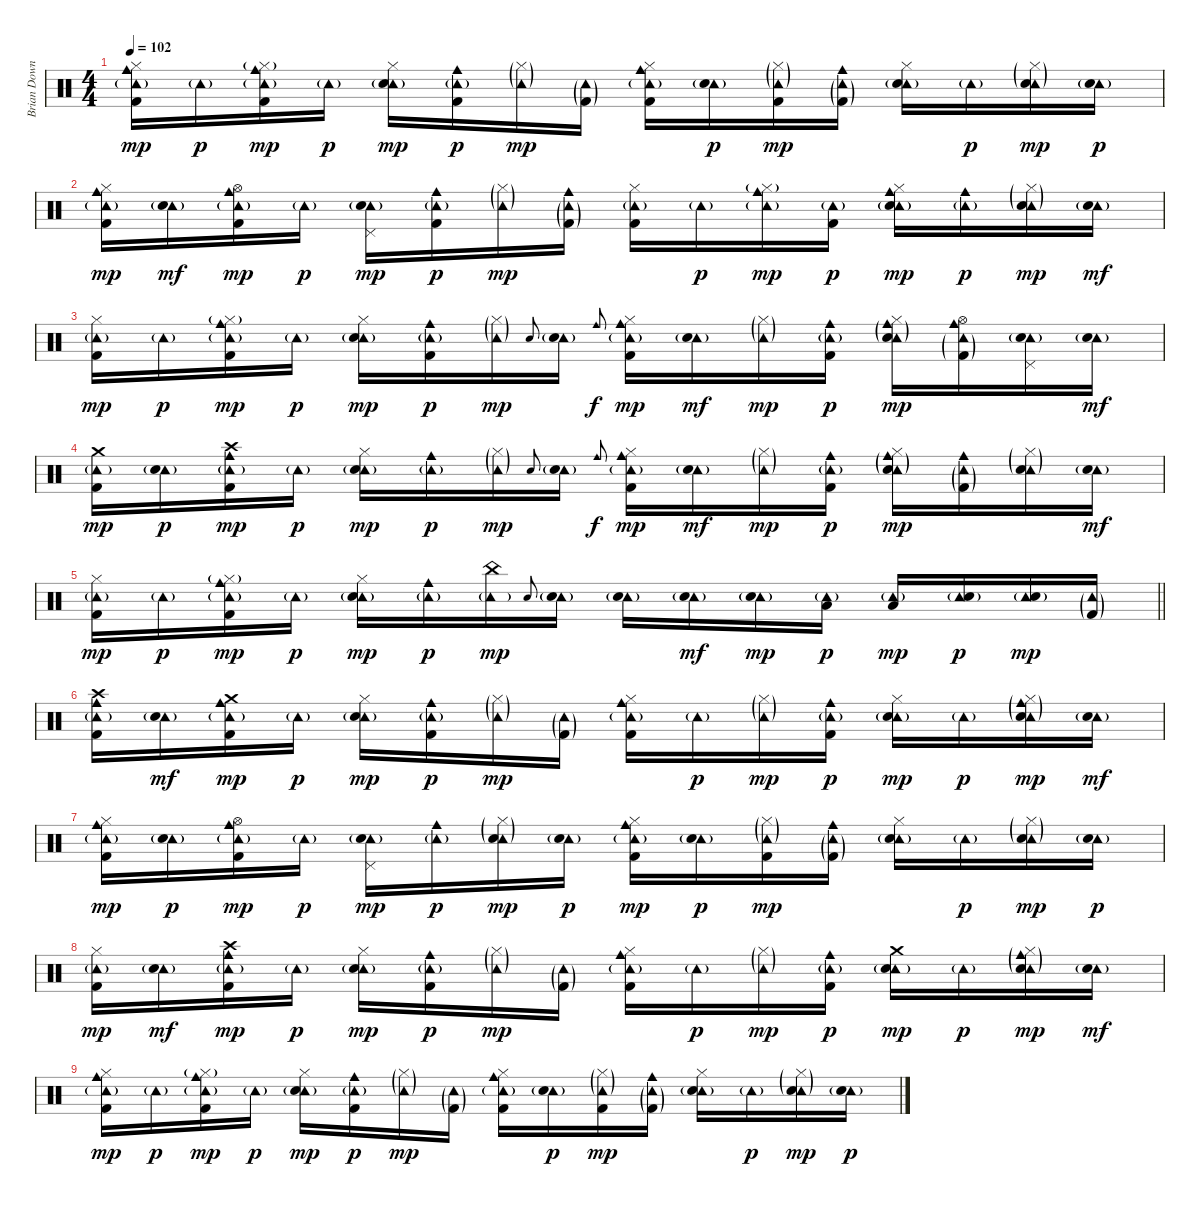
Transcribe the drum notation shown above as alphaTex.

\track ("Brian Downey" "Brian Down") {instrument percussion}
\staff {score}
\articulation defaults
\ts (4 4)
\tempo 102
\clef neutral
\ks aminor
("Hi-Hat (closed)" "Tambourine (hit)"{g} "Cowbell medium (hit)" "Kick (hit) 2").16{dy mp} "Tambourine (hit)"{g}.16{dy p} ("Hi-Hat (closed)"{g} "Tambourine (hit)"{g} "Cowbell medium (hit)" "Kick (hit) 2").16{dy mp} "Tambourine (hit)"{g}.16{dy p} ("Hi-Hat (closed)" "Tambourine (hit)"{g} "Electric Snare (hit)").16{dy mp} ("Tambourine (hit)"{g} "Cowbell medium (hit)" "Kick (hit) 2").16{dy p} ("Hi-Hat (closed)"{g} "Tambourine (hit)"{g}).16{dy mp} ("Tambourine (hit)"{g} "Kick (hit) 2"{g}).16 ("Hi-Hat (closed)" "Tambourine (hit)"{g} "Cowbell medium (hit)" "Kick (hit) 2").16 ("Tambourine (hit)"{g} "Electric Snare (hit)").16{dy p} ("Hi-Hat (closed)"{g} "Tambourine (hit)"{g} "Kick (hit) 2").16{dy mp} ("Tambourine (hit)"{g} "Cowbell medium (hit)" "Kick (hit) 2"{g}).16 ("Hi-Hat (closed)" "Tambourine (hit)"{g} "Electric Snare (hit)").16 "Tambourine (hit)"{g}.16{dy p} ("Hi-Hat (closed)"{g} "Tambourine (hit)"{g} "Electric Snare (hit)").16{dy mp} ("Tambourine (hit)"{g} "Electric Snare (hit)").16{dy p} |
("Hi-Hat (closed)" "Tambourine (hit)"{g} "Cowbell medium (hit)" "Kick (hit) 2").16{dy mp} ("Tambourine (hit)"{g} "Electric Snare (hit)").16{dy mf} ("Hi-Hat (open)" "Tambourine (hit)"{g} "Cowbell medium (hit)" "Kick (hit) 2").16{dy mp} "Tambourine (hit)"{g}.16{dy p} ("Pedal Hi-Hat (hit)" "Tambourine (hit)"{g} "Electric Snare (hit)").16{dy mp} ("Tambourine (hit)"{g} "Cowbell medium (hit)" "Kick (hit) 2").16{dy p} ("Hi-Hat (closed)"{g} "Tambourine (hit)"{g}).16{dy mp} ("Tambourine (hit)"{g} "Cowbell medium (hit)" "Kick (hit) 2"{g}).16 ("Hi-Hat (closed)" "Tambourine (hit)"{g} "Kick (hit) 2").16 "Tambourine (hit)"{g}.16{dy p} ("Hi-Hat (closed)"{g} "Tambourine (hit)"{g} "Cowbell medium (hit)").16{dy mp} ("Tambourine (hit)"{g} "Kick (hit) 2").16{dy p} ("Hi-Hat (closed)" "Tambourine (hit)"{g} "Cowbell medium (hit)" "Electric Snare (hit)").16{dy mp} ("Tambourine (hit)"{g} "Cowbell medium (hit)").16{dy p} ("Hi-Hat (closed)"{g} "Tambourine (hit)"{g} "Electric Snare (hit)").16{dy mp} ("Tambourine (hit)"{g} "Electric Snare (hit)").16{dy mf} |
("Hi-Hat (closed)" "Tambourine (hit)"{g} "Kick (hit) 2").16{dy mp} "Tambourine (hit)"{g}.16{dy p} ("Hi-Hat (closed)"{g} "Tambourine (hit)"{g} "Cowbell medium (hit)" "Kick (hit) 2").16{dy mp} "Tambourine (hit)"{g}.16{dy p} ("Hi-Hat (closed)" "Tambourine (hit)"{g} "Electric Snare (hit)").16{dy mp} ("Tambourine (hit)"{g} "Cowbell medium (hit)" "Kick (hit) 2").16{dy p} ("Hi-Hat (closed)"{g} "Tambourine (hit)"{g}).16{dy mp} "Electric Snare (hit)".8{gr onbeat} ("Tambourine (hit)"{g} "Electric Snare (hit)"{g}).16 "Cowbell medium (hit)".8{gr onbeat dy f} ("Hi-Hat (closed)" "Tambourine (hit)"{g} "Cowbell medium (hit)" "Kick (hit) 2").16{dy mp} ("Tambourine (hit)"{g} "Electric Snare (hit)").16{dy mf} ("Hi-Hat (closed)"{g} "Tambourine (hit)"{g}).16{dy mp} ("Tambourine (hit)"{g} "Cowbell medium (hit)" "Kick (hit) 2").16{dy p} ("Hi-Hat (closed)" "Tambourine (hit)"{g} "Cowbell medium (hit)"{g} "Electric Snare (hit)").16{dy mp} ("Hi-Hat (open)" "Tambourine (hit)"{g} "Cowbell medium (hit)" "Kick (hit) 2"{g}).16 ("Pedal Hi-Hat (hit)" "Tambourine (hit)"{g} "Electric Snare (hit)").16 ("Tambourine (hit)"{g} "Electric Snare (hit)").16{dy mf} |
("Crash medium (hit)" "Tambourine (hit)"{g} "Kick (hit) 2").16{dy mp} ("Tambourine (hit)"{g} "Electric Snare (hit)").16{dy p} ("Crash high (hit)" "Tambourine (hit)"{g} "Cowbell medium (hit)" "Kick (hit) 2").16{dy mp} "Tambourine (hit)"{g}.16{dy p} ("Hi-Hat (closed)" "Tambourine (hit)"{g} "Electric Snare (hit)").16{dy mp} ("Tambourine (hit)"{g} "Cowbell medium (hit)").16{dy p} ("Hi-Hat (closed)"{g} "Tambourine (hit)"{g}).16{dy mp} "Electric Snare (hit)".8{gr onbeat} ("Tambourine (hit)"{g} "Electric Snare (hit)"{g}).16 "Cowbell medium (hit)".8{gr onbeat dy f} ("Hi-Hat (closed)" "Tambourine (hit)"{g} "Cowbell medium (hit)" "Kick (hit) 2").16{dy mp} ("Tambourine (hit)"{g} "Electric Snare (hit)").16{dy mf} ("Hi-Hat (closed)"{g} "Tambourine (hit)"{g}).16{dy mp} ("Tambourine (hit)"{g} "Cowbell medium (hit)" "Kick (hit) 2").16{dy p} ("Hi-Hat (closed)" "Tambourine (hit)"{g} "Cowbell medium (hit)"{g} "Electric Snare (hit)").16{dy mp} ("Tambourine (hit)"{g} "Cowbell medium (hit)" "Kick (hit) 2"{g}).16 ("Hi-Hat (closed)"{g} "Tambourine (hit)"{g} "Electric Snare (hit)").16 ("Tambourine (hit)"{g} "Electric Snare (hit)").16{dy mf} |
\barLineRight lightlight
("Hi-Hat (closed)" "Tambourine (hit)"{g} "Kick (hit) 2").16{dy mp} "Tambourine (hit)"{g}.16{dy p} ("Hi-Hat (closed)"{g} "Tambourine (hit)"{g} "Cowbell medium (hit)" "Kick (hit) 2").16{dy mp} "Tambourine (hit)"{g}.16{dy p} ("Hi-Hat (closed)" "Tambourine (hit)"{g} "Electric Snare (hit)").16{dy mp} ("Tambourine (hit)"{g} "Cowbell medium (hit)").16{dy p} ("China (hit)" "Tambourine (hit)"{g}).16{dy mp} "Electric Snare (hit)".8{gr onbeat} ("Tambourine (hit)"{g} "Electric Snare (hit)"{g}).16 ("Tambourine (hit)"{g} "Electric Snare (hit)").16 ("Tambourine (hit)"{g} "Electric Snare (hit)").16{dy mf} ("Tambourine (hit)"{g} "Electric Snare (hit)"{g}).16{dy mp} ("Tambourine (hit)"{g} "Low Tom (hit)").16{dy p} ("Tambourine (hit)"{g} "Low Tom (hit)").16{dy mp} ("Tambourine (hit)"{g} "Electric Snare (hit)").16{dy p} ("Tambourine (hit)"{g} "Electric Snare (hit)").16{dy mp} ("Tambourine (hit)"{g} "Kick (hit) 2"{g}).16 |
\section ("" "")
("Crash high (hit)" "Tambourine (hit)"{g} "Cowbell medium (hit)" "Kick (hit) 2").16 ("Tambourine (hit)"{g} "Electric Snare (hit)").16{dy mf} ("Crash medium (hit)" "Tambourine (hit)"{g} "Cowbell medium (hit)" "Kick (hit) 2").16{dy mp} "Tambourine (hit)"{g}.16{dy p} ("Hi-Hat (closed)" "Tambourine (hit)"{g} "Electric Snare (hit)").16{dy mp} ("Tambourine (hit)"{g} "Cowbell medium (hit)" "Kick (hit) 2").16{dy p} ("Hi-Hat (closed)"{g} "Tambourine (hit)"{g}).16{dy mp} ("Tambourine (hit)"{g} "Kick (hit) 2"{g}).16 ("Hi-Hat (closed)" "Tambourine (hit)"{g} "Cowbell medium (hit)" "Kick (hit) 2").16 "Tambourine (hit)"{g}.16{dy p} ("Hi-Hat (closed)"{g} "Tambourine (hit)"{g}).16{dy mp} ("Tambourine (hit)"{g} "Cowbell medium (hit)" "Kick (hit) 2").16{dy p} ("Hi-Hat (closed)" "Tambourine (hit)"{g} "Electric Snare (hit)").16{dy mp} "Tambourine (hit)"{g}.16{dy p} ("Hi-Hat (closed)"{g} "Tambourine (hit)"{g} "Cowbell medium (hit)"{g} "Electric Snare (hit)").16{dy mp} ("Tambourine (hit)"{g} "Electric Snare (hit)").16{dy mf} |
("Hi-Hat (closed)" "Tambourine (hit)"{g} "Cowbell medium (hit)" "Kick (hit) 2").16{dy mp} ("Tambourine (hit)"{g} "Electric Snare (hit)").16{dy p} ("Hi-Hat (open)" "Tambourine (hit)"{g} "Cowbell medium (hit)" "Kick (hit) 2").16{dy mp} "Tambourine (hit)"{g}.16{dy p} ("Pedal Hi-Hat (hit)" "Tambourine (hit)"{g} "Electric Snare (hit)").16{dy mp} ("Tambourine (hit)"{g} "Cowbell medium (hit)").16{dy p} ("Hi-Hat (closed)"{g} "Tambourine (hit)"{g} "Electric Snare (hit)").16{dy mp} ("Tambourine (hit)"{g} "Electric Snare (hit)").16{dy p} ("Hi-Hat (closed)" "Tambourine (hit)"{g} "Cowbell medium (hit)" "Kick (hit) 2").16{dy mp} ("Tambourine (hit)"{g} "Electric Snare (hit)").16{dy p} ("Hi-Hat (closed)"{g} "Tambourine (hit)"{g} "Kick (hit) 2").16{dy mp} ("Tambourine (hit)"{g} "Cowbell medium (hit)" "Kick (hit) 2"{g}).16 ("Hi-Hat (closed)" "Tambourine (hit)"{g} "Electric Snare (hit)").16 "Tambourine (hit)"{g}.16{dy p} ("Hi-Hat (closed)"{g} "Tambourine (hit)"{g} "Electric Snare (hit)").16{dy mp} ("Tambourine (hit)"{g} "Electric Snare (hit)").16{dy p} |
("Hi-Hat (closed)" "Tambourine (hit)"{g} "Kick (hit) 2").16{dy mp} ("Tambourine (hit)"{g} "Electric Snare (hit)").16{dy mf} ("Crash high (hit)" "Tambourine (hit)"{g} "Cowbell medium (hit)" "Kick (hit) 2").16{dy mp} "Tambourine (hit)"{g}.16{dy p} ("Hi-Hat (closed)" "Tambourine (hit)"{g} "Electric Snare (hit)").16{dy mp} ("Tambourine (hit)"{g} "Cowbell medium (hit)" "Kick (hit) 2").16{dy p} ("Hi-Hat (closed)"{g} "Tambourine (hit)"{g}).16{dy mp} ("Tambourine (hit)"{g} "Kick (hit) 2"{g}).16 ("Hi-Hat (closed)" "Tambourine (hit)"{g} "Cowbell medium (hit)" "Kick (hit) 2").16 "Tambourine (hit)"{g}.16{dy p} ("Hi-Hat (closed)"{g} "Tambourine (hit)"{g}).16{dy mp} ("Tambourine (hit)"{g} "Cowbell medium (hit)" "Kick (hit) 2").16{dy p} ("Crash medium (hit)" "Tambourine (hit)"{g} "Electric Snare (hit)").16{dy mp} "Tambourine (hit)"{g}.16{dy p} ("Hi-Hat (closed)"{g} "Tambourine (hit)"{g} "Cowbell medium (hit)"{g} "Electric Snare (hit)").16{dy mp} ("Tambourine (hit)"{g} "Electric Snare (hit)").16{dy mf} |
("Hi-Hat (closed)" "Tambourine (hit)"{g} "Cowbell medium (hit)" "Kick (hit) 2").16{dy mp} "Tambourine (hit)"{g}.16{dy p} ("Hi-Hat (closed)"{g} "Tambourine (hit)"{g} "Cowbell medium (hit)" "Kick (hit) 2").16{dy mp} "Tambourine (hit)"{g}.16{dy p} ("Hi-Hat (closed)" "Tambourine (hit)"{g} "Electric Snare (hit)").16{dy mp} ("Tambourine (hit)"{g} "Cowbell medium (hit)" "Kick (hit) 2").16{dy p} ("Hi-Hat (closed)"{g} "Tambourine (hit)"{g}).16{dy mp} ("Tambourine (hit)"{g} "Kick (hit) 2"{g}).16 ("Hi-Hat (closed)" "Tambourine (hit)"{g} "Cowbell medium (hit)" "Kick (hit) 2").16 ("Tambourine (hit)"{g} "Electric Snare (hit)").16{dy p} ("Hi-Hat (closed)"{g} "Tambourine (hit)"{g} "Kick (hit) 2").16{dy mp} ("Tambourine (hit)"{g} "Cowbell medium (hit)" "Kick (hit) 2"{g}).16 ("Hi-Hat (closed)" "Tambourine (hit)"{g} "Electric Snare (hit)").16 "Tambourine (hit)"{g}.16{dy p} ("Hi-Hat (closed)"{g} "Tambourine (hit)"{g} "Electric Snare (hit)").16{dy mp} ("Tambourine (hit)"{g} "Electric Snare (hit)").16{dy p}
